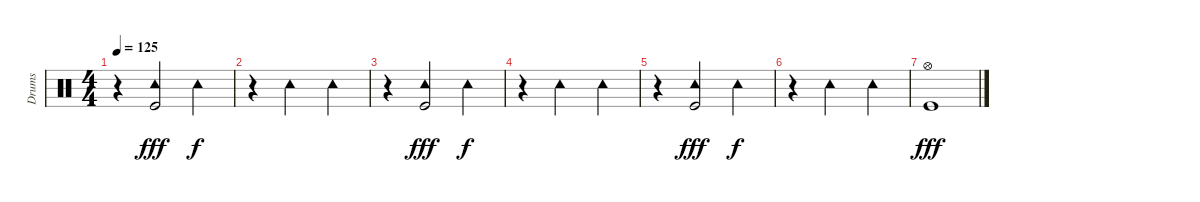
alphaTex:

\track ("Drums" "Drums") {instrument percussion}
\staff {score}
\articulation defaults
\ts (4 4)
\tempo 125
\clef neutral
\ks c
r.4{dy f} ("Tambourine (hit)" "Kick (hit)").2{dy fff} "Tambourine (hit)".4{dy f} |
r.4 "Tambourine (hit)".2 "Tambourine (hit)".4 |
r.4 ("Tambourine (hit)" "Kick (hit)").2{dy fff} "Tambourine (hit)".4{dy f} |
r.4 "Tambourine (hit)".2 "Tambourine (hit)".4 |
r.4 ("Tambourine (hit)" "Kick (hit)").2{dy fff} "Tambourine (hit)".4{dy f} |
r.4 "Tambourine (hit)".2 "Tambourine (hit)".4 |
("Hi-Hat (open)" "Kick (hit)").1{dy fff}
